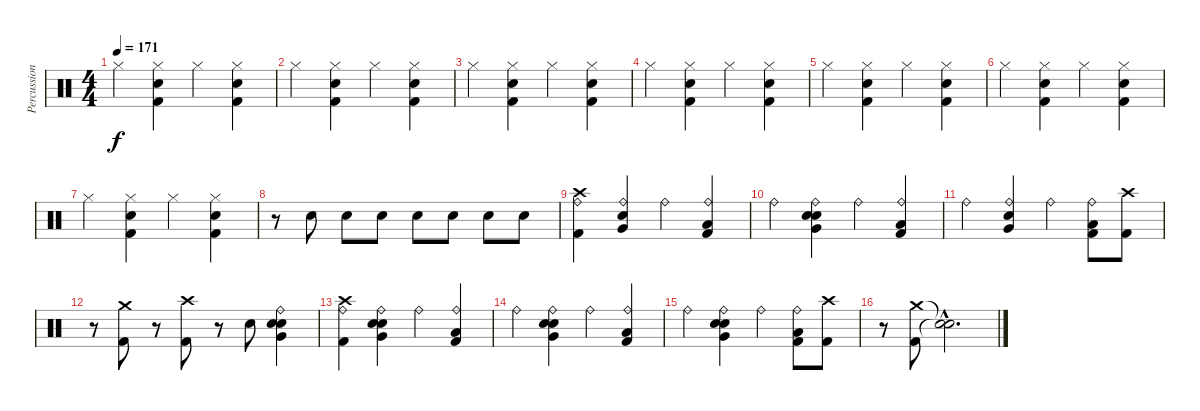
\track ("Percussion" "Percussion") {instrument percussion}
\staff {score}
\articulation defaults
\ts (4 4)
\tempo 171
\clef neutral
\ks c "Hi-Hat (closed)".4{dy f}
("Hi-Hat (closed)" "Metronome (bell)" "Kick (hit) 2").4 "Hi-Hat (closed)".4 ("Hi-Hat (closed)" "Metronome (bell)" "Kick (hit) 2").4 |
"Hi-Hat (closed)".4 ("Hi-Hat (closed)" "Metronome (bell)" "Kick (hit) 2").4 "Hi-Hat (closed)".4 ("Hi-Hat (closed)" "Metronome (bell)" "Kick (hit) 2").4 |
"Hi-Hat (closed)".4 ("Hi-Hat (closed)" "Metronome (bell)" "Kick (hit) 2").4 "Hi-Hat (closed)".4 ("Hi-Hat (closed)" "Metronome (bell)" "Kick (hit) 2").4 |
"Hi-Hat (closed)".4 ("Hi-Hat (closed)" "Metronome (bell)" "Kick (hit) 2").4 "Hi-Hat (closed)".4 ("Hi-Hat (closed)" "Metronome (bell)" "Kick (hit) 2").4 |
"Hi-Hat (closed)".4 ("Hi-Hat (closed)" "Metronome (bell)" "Kick (hit) 2").4 "Hi-Hat (closed)".4 ("Hi-Hat (closed)" "Metronome (bell)" "Kick (hit) 2").4 |
"Hi-Hat (closed)".4 ("Hi-Hat (closed)" "Metronome (bell)" "Kick (hit) 2").4 "Hi-Hat (closed)".4 ("Hi-Hat (closed)" "Metronome (bell)" "Kick (hit) 2").4 |
"Hi-Hat (closed)".4 ("Hi-Hat (closed)" "Metronome (bell)" "Kick (hit) 2").4 "Hi-Hat (closed)".4 ("Hi-Hat (closed)" "Metronome (bell)" "Kick (hit) 2").4 |
r.8 "Metronome (bell)".8 "Metronome (bell)".8 "Metronome (bell)".8 "Metronome (bell)".8 "Metronome (bell)".8 "Metronome (bell)".8 "Metronome (bell)".8 |
("Ride (bell)" "Crash high (hit)" "Kick (hit) 2").4 ("Ride (bell)" "Very Low Tom (hit)" "Metronome (bell)").4 "Ride (bell)".4 ("Ride (bell)" "Low Floor Tom (hit)" "Kick (hit) 2").4 |
"Ride (bell)".4 ("Ride (bell)" "Very Low Tom (hit)" "Metronome (bell)" "Electric Snare (hit)").4 "Ride (bell)".4 ("Ride (bell)" "Low Floor Tom (hit)" "Kick (hit) 2").4 |
"Ride (bell)".4 ("Ride (bell)" "Very Low Tom (hit)" "Metronome (bell)").4 "Ride (bell)".4 ("Ride (bell)" "Low Floor Tom (hit)" "Kick (hit) 2").8 ("Crash high (hit)" "Kick (hit) 2").8 |
r.8 ("Crash medium (hit)" "Kick (hit) 2").8 r.8 ("Crash high (hit)" "Kick (hit) 2").8 r.8 "Metronome (bell)".8 ("Ride (bell)" "Very Low Tom (hit)" "Metronome (bell)" "Electric Snare (hit)").4 |
("Ride (bell)" "Crash high (hit)" "Kick (hit) 2").4 ("Ride (bell)" "Very Low Tom (hit)" "Metronome (bell)" "Electric Snare (hit)").4 "Ride (bell)".4 ("Ride (bell)" "Low Floor Tom (hit)" "Kick (hit) 2").4 |
"Ride (bell)".4 ("Ride (bell)" "Very Low Tom (hit)" "Metronome (bell)" "Electric Snare (hit)").4 "Ride (bell)".4 ("Ride (bell)" "Low Floor Tom (hit)" "Kick (hit) 2").4 |
"Ride (bell)".4 ("Ride (bell)" "Very Low Tom (hit)" "Metronome (bell)" "Electric Snare (hit)").4 "Ride (bell)".4 ("Ride (bell)" "Low Floor Tom (hit)" "Kick (hit) 2").8 ("Crash high (hit)" "Kick (hit) 2").8 |
r.8 ("Crash medium (hit)" "Kick (hit) 2").8 ("Snare (hit)"{hac t} "Snare (hit)"{hac t}).2{d}
